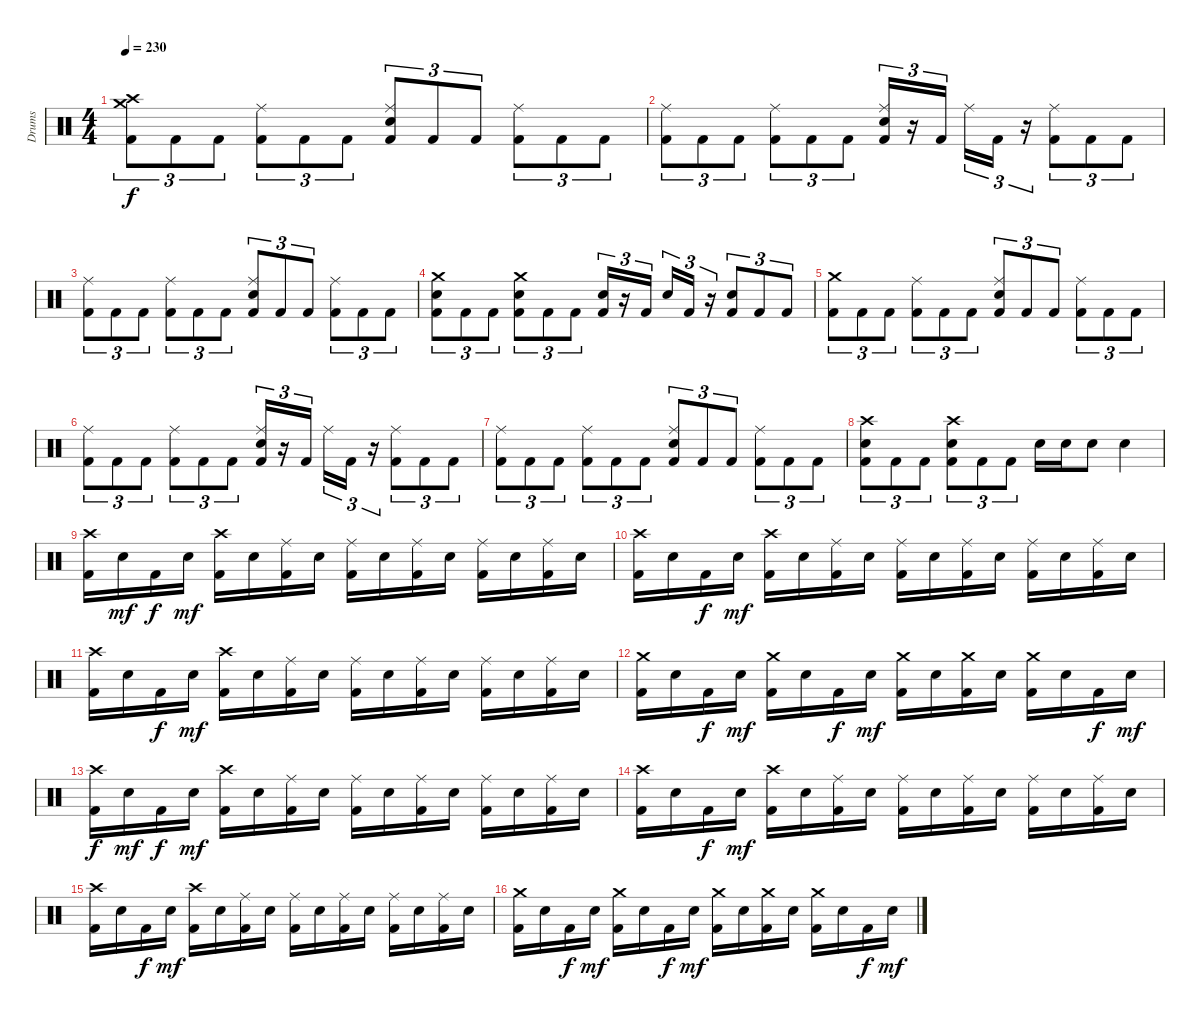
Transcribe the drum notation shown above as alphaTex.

\track ("Drums" "Drums") {instrument percussion}
\staff {score}
\articulation defaults
\ts (4 4)
\tempo 230
\clef neutral
\ks c
("Crash medium (hit)" "Crash high (hit)" "Kick (hit) 2").8{tu (3 2) dy f} "Kick (hit) 2".8{tu (3 2)} "Kick (hit) 2".8{tu (3 2)} ("Ride (middle)" "Kick (hit) 2").8{tu (3 2)} "Kick (hit) 2".8{tu (3 2)} "Kick (hit) 2".8{tu (3 2)} ("Ride (middle)" "Electric Snare (hit)" "Kick (hit) 2").8{tu (3 2)} "Kick (hit) 2".8{tu (3 2)} "Kick (hit) 2".8{tu (3 2)} ("Ride (middle)" "Kick (hit) 2").8{tu (3 2)} "Kick (hit) 2".8{tu (3 2)} "Kick (hit) 2".8{tu (3 2)} |
("Ride (middle)" "Kick (hit) 2").8{tu (3 2)} "Kick (hit) 2".8{tu (3 2)} "Kick (hit) 2".8{tu (3 2)} ("Ride (middle)" "Kick (hit) 2").8{tu (3 2)} "Kick (hit) 2".8{tu (3 2)} "Kick (hit) 2".8{tu (3 2)} ("Ride (middle)" "Electric Snare (hit)" "Kick (hit) 2").16{tu (3 2)} r.16{tu (3 2)} "Kick (hit) 2".16{tu (3 2) beam splitsecondary} "Ride (middle)".16{tu (3 2)} "Kick (hit) 2".16{tu (3 2)} r.16{tu (3 2)} ("Ride (middle)" "Kick (hit) 2").8{tu (3 2)} "Kick (hit) 2".8{tu (3 2)} "Kick (hit) 2".8{tu (3 2)} |
("Ride (middle)" "Kick (hit) 2").8{tu (3 2)} "Kick (hit) 2".8{tu (3 2)} "Kick (hit) 2".8{tu (3 2)} ("Ride (middle)" "Kick (hit) 2").8{tu (3 2)} "Kick (hit) 2".8{tu (3 2)} "Kick (hit) 2".8{tu (3 2)} ("Ride (middle)" "Electric Snare (hit)" "Kick (hit) 2").8{tu (3 2)} "Kick (hit) 2".8{tu (3 2)} "Kick (hit) 2".8{tu (3 2)} ("Ride (middle)" "Kick (hit) 2").8{tu (3 2)} "Kick (hit) 2".8{tu (3 2)} "Kick (hit) 2".8{tu (3 2)} |
("Crash medium (hit)" "Electric Snare (hit)" "Kick (hit) 2").8{tu (3 2)} "Kick (hit) 2".8{tu (3 2)} "Kick (hit) 2".8{tu (3 2)} ("Crash medium (hit)" "Electric Snare (hit)" "Kick (hit) 2").8{tu (3 2)} "Kick (hit) 2".8{tu (3 2)} "Kick (hit) 2".8{tu (3 2)} ("Electric Snare (hit)" "Kick (hit) 2").16{tu (3 2)} r.16{tu (3 2)} "Kick (hit) 2".16{tu (3 2) beam splitsecondary} "Electric Snare (hit)".16{tu (3 2)} "Kick (hit) 2".16{tu (3 2)} r.16{tu (3 2)} ("Electric Snare (hit)" "Kick (hit) 2").8{tu (3 2)} "Kick (hit) 2".8{tu (3 2)} "Kick (hit) 2".8{tu (3 2)} |
("Crash medium (hit)" "Kick (hit) 2").8{tu (3 2)} "Kick (hit) 2".8{tu (3 2)} "Kick (hit) 2".8{tu (3 2)} ("Ride (middle)" "Kick (hit) 2").8{tu (3 2)} "Kick (hit) 2".8{tu (3 2)} "Kick (hit) 2".8{tu (3 2)} ("Ride (middle)" "Electric Snare (hit)" "Kick (hit) 2").8{tu (3 2)} "Kick (hit) 2".8{tu (3 2)} "Kick (hit) 2".8{tu (3 2)} ("Ride (middle)" "Kick (hit) 2").8{tu (3 2)} "Kick (hit) 2".8{tu (3 2)} "Kick (hit) 2".8{tu (3 2)} |
("Ride (middle)" "Kick (hit) 2").8{tu (3 2)} "Kick (hit) 2".8{tu (3 2)} "Kick (hit) 2".8{tu (3 2)} ("Ride (middle)" "Kick (hit) 2").8{tu (3 2)} "Kick (hit) 2".8{tu (3 2)} "Kick (hit) 2".8{tu (3 2)} ("Ride (middle)" "Electric Snare (hit)" "Kick (hit) 2").16{tu (3 2)} r.16{tu (3 2)} "Kick (hit) 2".16{tu (3 2) beam splitsecondary} "Ride (middle)".16{tu (3 2)} "Kick (hit) 2".16{tu (3 2)} r.16{tu (3 2)} ("Ride (middle)" "Kick (hit) 2").8{tu (3 2)} "Kick (hit) 2".8{tu (3 2)} "Kick (hit) 2".8{tu (3 2)} |
("Ride (middle)" "Kick (hit) 2").8{tu (3 2)} "Kick (hit) 2".8{tu (3 2)} "Kick (hit) 2".8{tu (3 2)} ("Ride (middle)" "Kick (hit) 2").8{tu (3 2)} "Kick (hit) 2".8{tu (3 2)} "Kick (hit) 2".8{tu (3 2)} ("Ride (middle)" "Electric Snare (hit)" "Kick (hit) 2").8{tu (3 2)} "Kick (hit) 2".8{tu (3 2)} "Kick (hit) 2".8{tu (3 2)} ("Ride (middle)" "Kick (hit) 2").8{tu (3 2)} "Kick (hit) 2".8{tu (3 2)} "Kick (hit) 2".8{tu (3 2)} |
("Crash high (hit)" "Electric Snare (hit)" "Kick (hit) 2").8{tu (3 2)} "Kick (hit) 2".8{tu (3 2)} "Kick (hit) 2".8{tu (3 2)} ("Crash high (hit)" "Electric Snare (hit)" "Kick (hit) 2").8{tu (3 2)} "Kick (hit) 2".8{tu (3 2)} "Kick (hit) 2".8{tu (3 2)} "Electric Snare (hit)".16 "Electric Snare (hit)".16 "Electric Snare (hit)".8 "Electric Snare (hit)".4 |
("Crash high (hit)" "Kick (hit) 2").16 "Electric Snare (hit)".16{dy mf} "Kick (hit) 2".16{dy f} "Electric Snare (hit)".16{dy mf} ("Crash high (hit)" "Kick (hit) 2").16 "Electric Snare (hit)".16 ("Ride (middle)" "Kick (hit) 2").16 "Electric Snare (hit)".16 ("Ride (middle)" "Kick (hit) 2").16 "Electric Snare (hit)".16 ("Ride (middle)" "Kick (hit) 2").16 "Electric Snare (hit)".16 ("Ride (middle)" "Kick (hit) 2").16 "Electric Snare (hit)".16 ("Ride (middle)" "Kick (hit) 2").16 "Electric Snare (hit)".16 |
("Crash high (hit)" "Kick (hit) 2").16 "Electric Snare (hit)".16 "Kick (hit) 2".16{dy f} "Electric Snare (hit)".16{dy mf} ("Crash high (hit)" "Kick (hit) 2").16 "Electric Snare (hit)".16 ("Ride (middle)" "Kick (hit) 2").16 "Electric Snare (hit)".16 ("Ride (middle)" "Kick (hit) 2").16 "Electric Snare (hit)".16 ("Ride (middle)" "Kick (hit) 2").16 "Electric Snare (hit)".16 ("Ride (middle)" "Kick (hit) 2").16 "Electric Snare (hit)".16 ("Ride (middle)" "Kick (hit) 2").16 "Electric Snare (hit)".16 |
("Crash high (hit)" "Kick (hit) 2").16 "Electric Snare (hit)".16 "Kick (hit) 2".16{dy f} "Electric Snare (hit)".16{dy mf} ("Crash high (hit)" "Kick (hit) 2").16 "Electric Snare (hit)".16 ("Ride (middle)" "Kick (hit) 2").16 "Electric Snare (hit)".16 ("Ride (middle)" "Kick (hit) 2").16 "Electric Snare (hit)".16 ("Ride (middle)" "Kick (hit) 2").16 "Electric Snare (hit)".16 ("Ride (middle)" "Kick (hit) 2").16 "Electric Snare (hit)".16 ("Ride (middle)" "Kick (hit) 2").16 "Electric Snare (hit)".16 |
("Crash medium (hit)" "Kick (hit) 2").16 "Electric Snare (hit)".16 "Kick (hit) 2".16{dy f} "Electric Snare (hit)".16{dy mf} ("Crash medium (hit)" "Kick (hit) 2").16 "Electric Snare (hit)".16 "Kick (hit) 2".16{dy f} "Electric Snare (hit)".16{dy mf} ("Crash medium (hit)" "Kick (hit) 2").16 "Electric Snare (hit)".16 ("Crash medium (hit)" "Kick (hit) 2").16 "Electric Snare (hit)".16 ("Crash medium (hit)" "Kick (hit) 2").16 "Electric Snare (hit)".16 "Kick (hit) 2".16{dy f} "Electric Snare (hit)".16{dy mf} |
("Crash high (hit)" "Kick (hit) 2").16{dy f} "Electric Snare (hit)".16{dy mf} "Kick (hit) 2".16{dy f} "Electric Snare (hit)".16{dy mf} ("Crash high (hit)" "Kick (hit) 2").16 "Electric Snare (hit)".16 ("Ride (middle)" "Kick (hit) 2").16 "Electric Snare (hit)".16 ("Ride (middle)" "Kick (hit) 2").16 "Electric Snare (hit)".16 ("Ride (middle)" "Kick (hit) 2").16 "Electric Snare (hit)".16 ("Ride (middle)" "Kick (hit) 2").16 "Electric Snare (hit)".16 ("Ride (middle)" "Kick (hit) 2").16 "Electric Snare (hit)".16 |
("Crash high (hit)" "Kick (hit) 2").16 "Electric Snare (hit)".16 "Kick (hit) 2".16{dy f} "Electric Snare (hit)".16{dy mf} ("Crash high (hit)" "Kick (hit) 2").16 "Electric Snare (hit)".16 ("Ride (middle)" "Kick (hit) 2").16 "Electric Snare (hit)".16 ("Ride (middle)" "Kick (hit) 2").16 "Electric Snare (hit)".16 ("Ride (middle)" "Kick (hit) 2").16 "Electric Snare (hit)".16 ("Ride (middle)" "Kick (hit) 2").16 "Electric Snare (hit)".16 ("Ride (middle)" "Kick (hit) 2").16 "Electric Snare (hit)".16 |
("Crash high (hit)" "Kick (hit) 2").16 "Electric Snare (hit)".16 "Kick (hit) 2".16{dy f} "Electric Snare (hit)".16{dy mf} ("Crash high (hit)" "Kick (hit) 2").16 "Electric Snare (hit)".16 ("Ride (middle)" "Kick (hit) 2").16 "Electric Snare (hit)".16 ("Ride (middle)" "Kick (hit) 2").16 "Electric Snare (hit)".16 ("Ride (middle)" "Kick (hit) 2").16 "Electric Snare (hit)".16 ("Ride (middle)" "Kick (hit) 2").16 "Electric Snare (hit)".16 ("Ride (middle)" "Kick (hit) 2").16 "Electric Snare (hit)".16 |
("Crash medium (hit)" "Kick (hit) 2").16 "Electric Snare (hit)".16 "Kick (hit) 2".16{dy f} "Electric Snare (hit)".16{dy mf} ("Crash medium (hit)" "Kick (hit) 2").16 "Electric Snare (hit)".16 "Kick (hit) 2".16{dy f} "Electric Snare (hit)".16{dy mf} ("Crash medium (hit)" "Kick (hit) 2").16 "Electric Snare (hit)".16 ("Crash medium (hit)" "Kick (hit) 2").16 "Electric Snare (hit)".16 ("Crash medium (hit)" "Kick (hit) 2").16 "Electric Snare (hit)".16 "Kick (hit) 2".16{dy f} "Electric Snare (hit)".16{dy mf}
